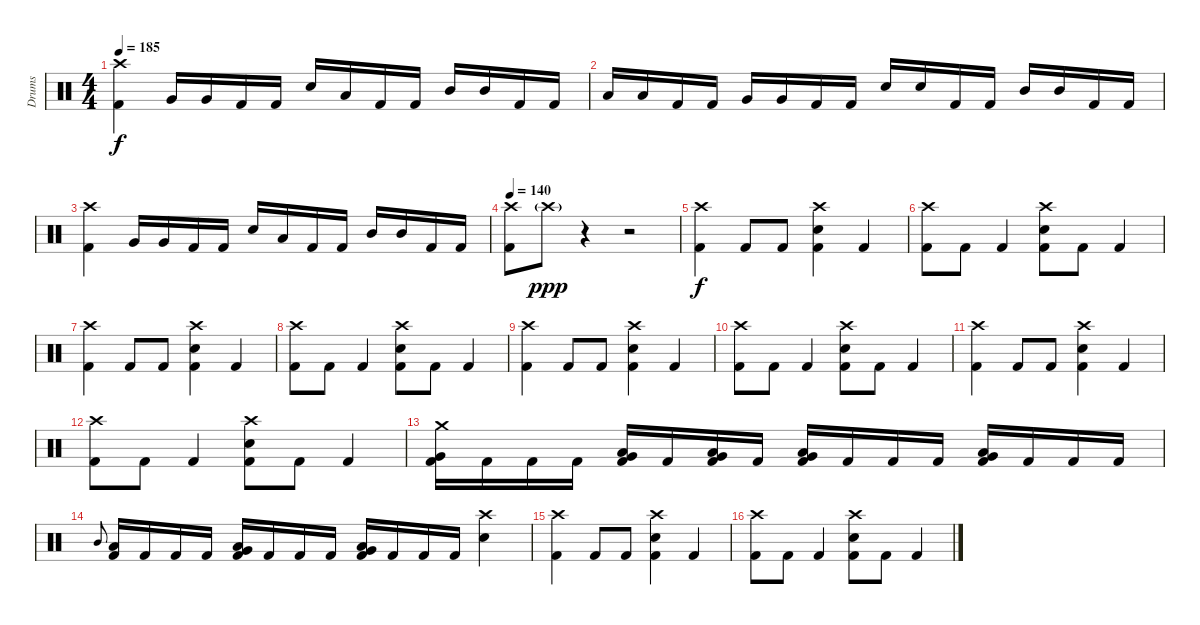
\track ("Drums" "Drums") {instrument percussion}
\staff {score}
\articulation defaults
\ts (4 4)
\tempo 185
\clef neutral
\ks c
("Crash high (hit)" "Kick (hit) 2").4{dy f} "Very Low Tom (hit)".16 "Very Low Tom (hit)".16 "Kick (hit) 2".16 "Kick (hit) 2".16 "Electric Snare (hit)".16 "Low Tom (hit)".16 "Kick (hit) 2".16 "Kick (hit) 2".16 "Mid Tom (hit)".16 "Mid Tom (hit)".16 "Kick (hit) 2".16 "Kick (hit) 2".16 |
"Low Tom (hit)".16 "Low Tom (hit)".16 "Kick (hit) 2".16 "Kick (hit) 2".16 "Very Low Tom (hit)".16 "Very Low Tom (hit)".16 "Kick (hit) 2".16 "Kick (hit) 2".16 "Electric Snare (hit)".16 "Electric Snare (hit)".16 "Kick (hit) 2".16 "Kick (hit) 2".16 "Mid Tom (hit)".16 "Mid Tom (hit)".16 "Kick (hit) 2".16 "Kick (hit) 2".16 |
("Crash high (hit)" "Kick (hit) 2").4 "Very Low Tom (hit)".16 "Very Low Tom (hit)".16 "Kick (hit) 2".16 "Kick (hit) 2".16 "Electric Snare (hit)".16 "Low Tom (hit)".16 "Kick (hit) 2".16 "Kick (hit) 2".16 "Mid Tom (hit)".16 "Mid Tom (hit)".16 "Kick (hit) 2".16 "Kick (hit) 2".16 |
\tempo 140
("Crash high (hit)" "Kick (hit) 2").8 "Crash high (hit)"{g}.8{dy ppp} r.4 r.2 |
("Crash high (hit)" "Kick (hit) 2").4{dy f} "Kick (hit) 2".8 "Kick (hit) 2".8 ("Crash high (hit)" "Electric Snare (hit)" "Kick (hit) 2").4 "Kick (hit) 2".4 |
("Crash high (hit)" "Kick (hit) 2").8 "Kick (hit) 2".8 "Kick (hit) 2".4 ("Crash high (hit)" "Electric Snare (hit)" "Kick (hit) 2").8 "Kick (hit) 2".8 "Kick (hit) 2".4 |
("Crash high (hit)" "Kick (hit) 2").4 "Kick (hit) 2".8 "Kick (hit) 2".8 ("Crash high (hit)" "Electric Snare (hit)" "Kick (hit) 2").4 "Kick (hit) 2".4 |
("Crash high (hit)" "Kick (hit) 2").8 "Kick (hit) 2".8 "Kick (hit) 2".4 ("Crash high (hit)" "Electric Snare (hit)" "Kick (hit) 2").8 "Kick (hit) 2".8 "Kick (hit) 2".4 |
("Crash high (hit)" "Kick (hit) 2").4 "Kick (hit) 2".8 "Kick (hit) 2".8 ("Crash high (hit)" "Electric Snare (hit)" "Kick (hit) 2").4 "Kick (hit) 2".4 |
("Crash high (hit)" "Kick (hit) 2").8 "Kick (hit) 2".8 "Kick (hit) 2".4 ("Crash high (hit)" "Electric Snare (hit)" "Kick (hit) 2").8 "Kick (hit) 2".8 "Kick (hit) 2".4 |
("Crash high (hit)" "Kick (hit) 2").4 "Kick (hit) 2".8 "Kick (hit) 2".8 ("Crash high (hit)" "Electric Snare (hit)" "Kick (hit) 2").4 "Kick (hit) 2".4 |
("Crash high (hit)" "Kick (hit) 2").8 "Kick (hit) 2".8 "Kick (hit) 2".4 ("Crash high (hit)" "Electric Snare (hit)" "Kick (hit) 2").8 "Kick (hit) 2".8 "Kick (hit) 2".4 |
("Crash medium (hit)" "Very Low Tom (hit)" "Kick (hit) 2").16 "Kick (hit) 2".16 "Kick (hit) 2".16 "Kick (hit) 2".16 ("Low Floor Tom (hit)" "Very Low Tom (hit)" "Kick (hit) 2").16 "Kick (hit) 2".16 ("Low Floor Tom (hit)" "Very Low Tom (hit)" "Kick (hit) 2").16 "Kick (hit) 2".16 ("Low Floor Tom (hit)" "Very Low Tom (hit)" "Kick (hit) 2").16 "Kick (hit) 2".16 "Kick (hit) 2".16 "Kick (hit) 2".16 ("Low Floor Tom (hit)" "Very Low Tom (hit)" "Kick (hit) 2").16 "Kick (hit) 2".16 "Kick (hit) 2".16 "Kick (hit) 2".16 |
"Mid Tom (hit)".8{gr onbeat} ("Low Tom (hit)" "Kick (hit) 2").16 "Kick (hit) 2".16 "Kick (hit) 2".16 "Kick (hit) 2".16 ("Low Floor Tom (hit)" "Very Low Tom (hit)" "Kick (hit) 2").16 "Kick (hit) 2".16 "Kick (hit) 2".16 "Kick (hit) 2".16 ("Low Floor Tom (hit)" "Very Low Tom (hit)" "Kick (hit) 2").16 "Kick (hit) 2".16 "Kick (hit) 2".16 "Kick (hit) 2".16 ("Crash high (hit)" "Electric Snare (hit)").4 |
("Crash high (hit)" "Kick (hit) 2").4 "Kick (hit) 2".8 "Kick (hit) 2".8 ("Crash high (hit)" "Electric Snare (hit)" "Kick (hit) 2").4 "Kick (hit) 2".4 |
("Crash high (hit)" "Kick (hit) 2").8 "Kick (hit) 2".8 "Kick (hit) 2".4 ("Crash high (hit)" "Electric Snare (hit)" "Kick (hit) 2").8 "Kick (hit) 2".8 "Kick (hit) 2".4
